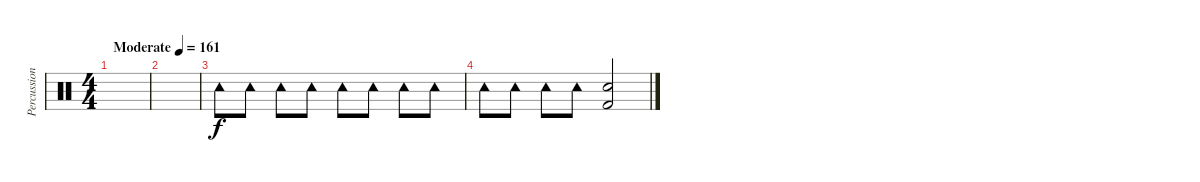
\track ("Percussion" "Percussion") {instrument percussion}
\staff {score}
\articulation defaults
\ts (4 4)
\tempo (161 "Moderate")
\clef neutral
\ks c
|
|
"Tambourine (hit)".8 "Tambourine (hit)".8 "Tambourine (hit)".8 "Tambourine (hit)".8 "Tambourine (hit)".8 "Tambourine (hit)".8 "Tambourine (hit)".8 "Tambourine (hit)".8 |
"Tambourine (hit)".8 "Tambourine (hit)".8 "Tambourine (hit)".8 "Tambourine (hit)".8 ("Snare (hit) 2" "Kick (hit) 2").2
